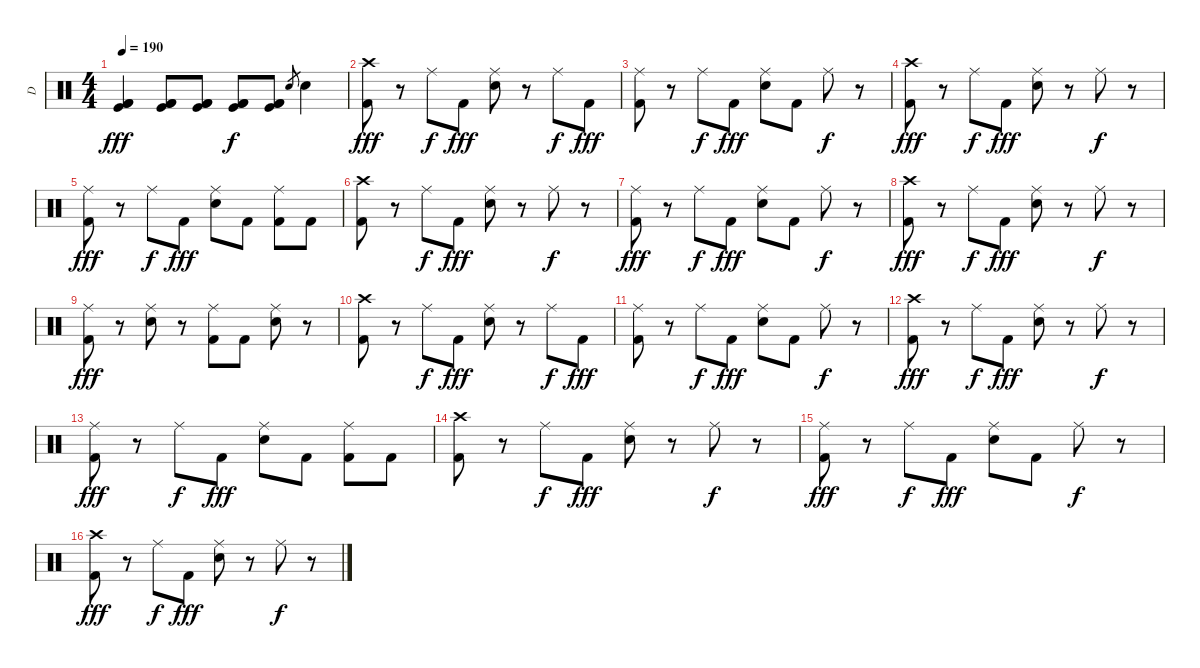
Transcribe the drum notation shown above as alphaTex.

\track ("D" "D") {instrument percussion}
\staff {score}
\articulation defaults
\ts (4 4)
\tempo 190
\clef neutral
\ks c
("Kick (hit)" "Kick (hit) 2" "Kick (hit) 2").4{dy fff} ("Kick (hit)" "Kick (hit) 2" "Kick (hit) 2").8 ("Kick (hit)" "Kick (hit) 2" "Kick (hit) 2").8 ("Kick (hit)" "Kick (hit) 2" "Kick (hit) 2").8{dy f} ("Kick (hit)" "Kick (hit) 2" "Kick (hit) 2").8 "Electric Snare (hit)".8{gr} "Electric Snare (hit)".4 |
("Crash high (hit)" "Kick (hit) 2").8{dy fff} r.8 "Ride (middle)".8{dy f} "Kick (hit) 2".8{dy fff} ("Ride (middle)" "Electric Snare (hit)").8 r.8 "Ride (middle)".8{dy f} "Kick (hit) 2".8{dy fff} |
("Ride (middle)" "Kick (hit) 2").8 r.8 "Ride (middle)".8{dy f} "Kick (hit) 2".8{dy fff} ("Ride (middle)" "Electric Snare (hit)").8 "Kick (hit) 2".8 "Ride (middle)".8{dy f} r.8 |
("Crash high (hit)" "Kick (hit) 2").8{dy fff} r.8 "Ride (middle)".8{dy f} "Kick (hit) 2".8{dy fff} ("Ride (middle)" "Electric Snare (hit)").8 r.8 "Ride (middle)".8{dy f} r.8 |
("Ride (middle)" "Kick (hit) 2").8{dy fff} r.8 "Ride (middle)".8{dy f} "Kick (hit) 2".8{dy fff} ("Ride (middle)" "Electric Snare (hit)").8 "Kick (hit) 2".8 ("Ride (middle)" "Kick (hit) 2").8 "Kick (hit) 2".8 |
("Crash high (hit)" "Kick (hit) 2").8 r.8 "Ride (middle)".8{dy f} "Kick (hit) 2".8{dy fff} ("Ride (middle)" "Electric Snare (hit)").8 r.8 "Ride (middle)".8{dy f} r.8 |
("Ride (middle)" "Kick (hit) 2").8{dy fff} r.8 "Ride (middle)".8{dy f} "Kick (hit) 2".8{dy fff} ("Ride (middle)" "Electric Snare (hit)").8 "Kick (hit) 2".8 "Ride (middle)".8{dy f} r.8 |
("Crash high (hit)" "Kick (hit) 2").8{dy fff} r.8 "Ride (middle)".8{dy f} "Kick (hit) 2".8{dy fff} ("Ride (middle)" "Electric Snare (hit)").8 r.8 "Ride (middle)".8{dy f} r.8 |
("Ride (middle)" "Kick (hit) 2").8{dy fff} r.8 ("Ride (middle)" "Electric Snare (hit)").8 r.8 ("Ride (middle)" "Kick (hit) 2").8 "Kick (hit) 2".8 ("Ride (middle)" "Electric Snare (hit)").8 r.8 |
("Crash high (hit)" "Kick (hit) 2").8 r.8 "Ride (middle)".8{dy f} "Kick (hit) 2".8{dy fff} ("Ride (middle)" "Electric Snare (hit)").8 r.8 "Ride (middle)".8{dy f} "Kick (hit) 2".8{dy fff} |
("Ride (middle)" "Kick (hit) 2").8 r.8 "Ride (middle)".8{dy f} "Kick (hit) 2".8{dy fff} ("Ride (middle)" "Electric Snare (hit)").8 "Kick (hit) 2".8 "Ride (middle)".8{dy f} r.8 |
("Crash high (hit)" "Kick (hit) 2").8{dy fff} r.8 "Ride (middle)".8{dy f} "Kick (hit) 2".8{dy fff} ("Ride (middle)" "Electric Snare (hit)").8 r.8 "Ride (middle)".8{dy f} r.8 |
("Ride (middle)" "Kick (hit) 2").8{dy fff} r.8 "Ride (middle)".8{dy f} "Kick (hit) 2".8{dy fff} ("Ride (middle)" "Electric Snare (hit)").8 "Kick (hit) 2".8 ("Ride (middle)" "Kick (hit) 2").8 "Kick (hit) 2".8 |
("Crash high (hit)" "Kick (hit) 2").8 r.8 "Ride (middle)".8{dy f} "Kick (hit) 2".8{dy fff} ("Ride (middle)" "Electric Snare (hit)").8 r.8 "Ride (middle)".8{dy f} r.8 |
("Ride (middle)" "Kick (hit) 2").8{dy fff} r.8 "Ride (middle)".8{dy f} "Kick (hit) 2".8{dy fff} ("Ride (middle)" "Electric Snare (hit)").8 "Kick (hit) 2".8 "Ride (middle)".8{dy f} r.8 |
("Crash high (hit)" "Kick (hit) 2").8{dy fff} r.8 "Ride (middle)".8{dy f} "Kick (hit) 2".8{dy fff} ("Ride (middle)" "Electric Snare (hit)").8 r.8 "Ride (middle)".8{dy f} r.8
